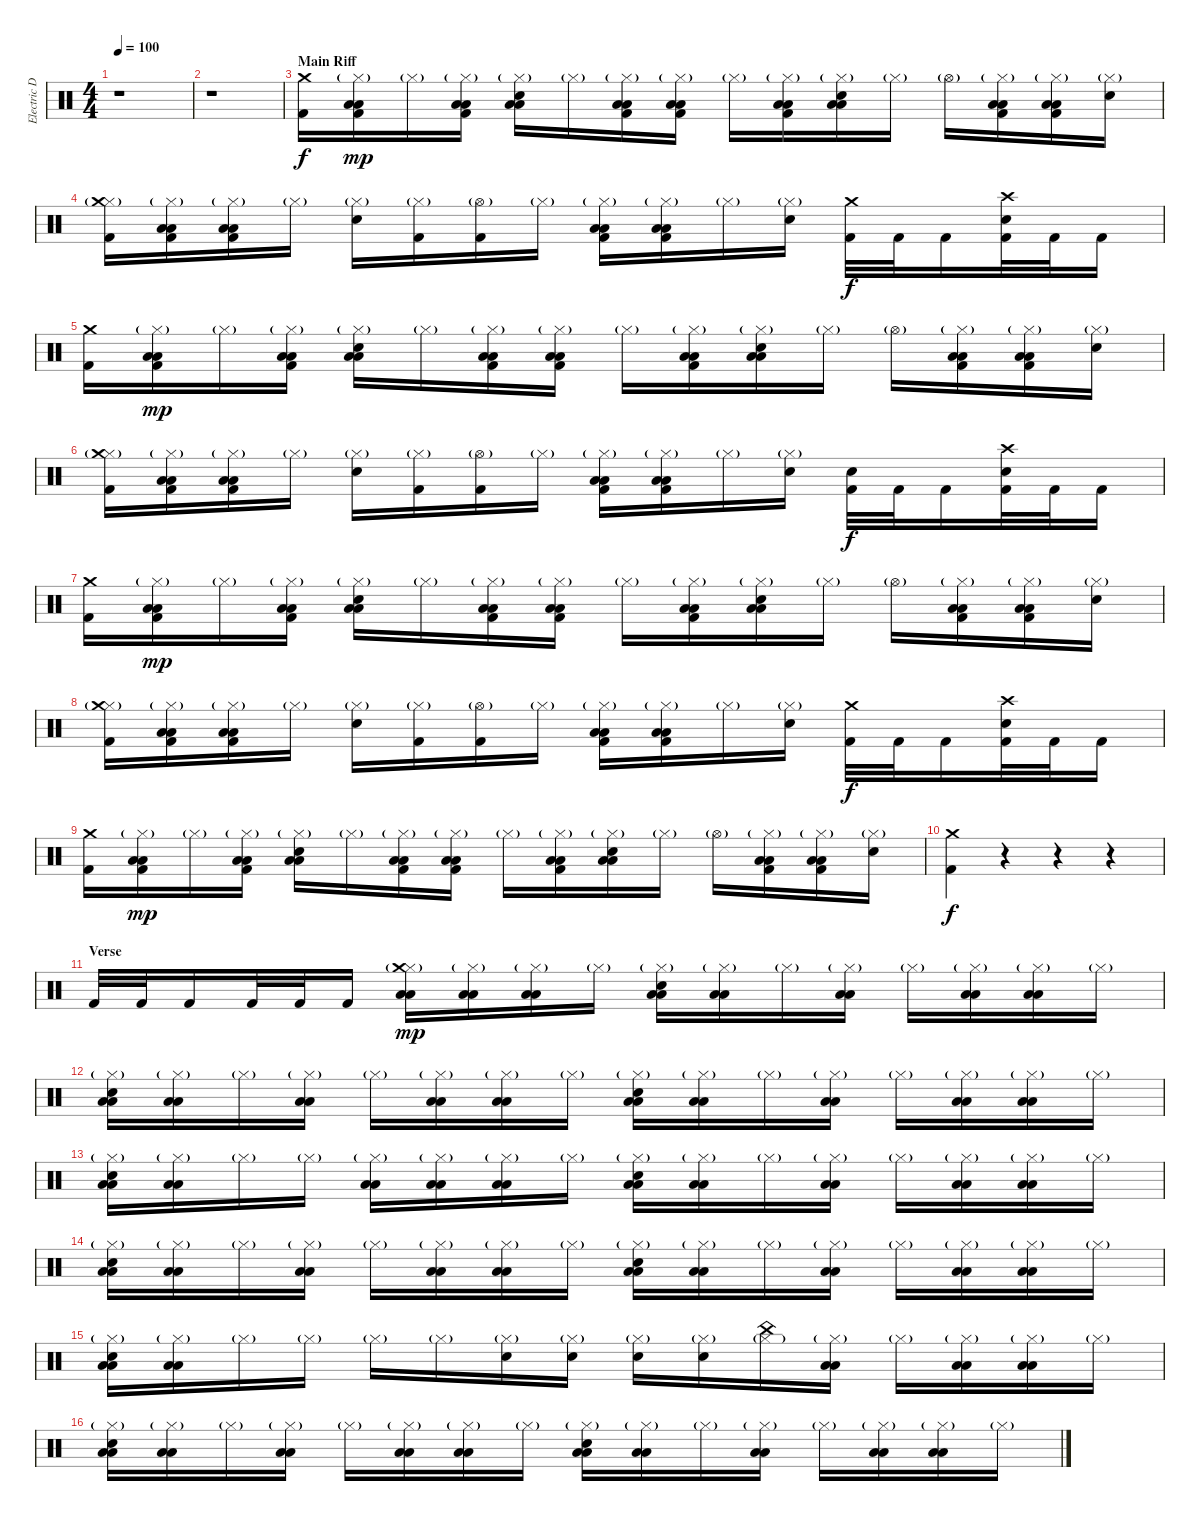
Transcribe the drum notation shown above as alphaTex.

\track ("Electric Drums" "Electric D") {instrument percussion}
\staff {score}
\articulation defaults
\ts (4 4)
\tempo 100
\clef neutral
\ks c
r.1{dy f} |
r.1 |
\section ("" "Main Riff")
("Kick (hit) 2" "Crash medium (hit)").16 ("Hi-Hat (closed)"{g} "Kick (hit) 2" "Low Tom (hit)" "Low Floor Tom (hit)").16{dy mp} "Hi-Hat (closed)"{g}.16 ("Hi-Hat (closed)"{g} "Kick (hit) 2" "Low Tom (hit)" "Low Floor Tom (hit)").16 ("Hi-Hat (closed)"{g} "Snare (hit) 2" "Low Tom (hit)" "Low Floor Tom (hit)").16 "Hi-Hat (closed)"{g}.16 ("Hi-Hat (closed)"{g} "Kick (hit) 2" "Low Floor Tom (hit)" "Low Tom (hit)").16 ("Hi-Hat (closed)"{g} "Kick (hit) 2" "Low Floor Tom (hit)" "Low Tom (hit)").16 "Hi-Hat (closed)"{g}.16 ("Hi-Hat (closed)"{g} "Kick (hit) 2" "Low Floor Tom (hit)" "Low Tom (hit)").16 ("Hi-Hat (closed)"{g} "Snare (hit) 2" "Low Floor Tom (hit)" "Low Tom (hit)").16 "Hi-Hat (closed)"{g}.16 "Hi-Hat (open)"{g}.16 ("Hi-Hat (closed)"{g} "Kick (hit) 2" "Low Tom (hit)" "Low Floor Tom (hit)").16 ("Hi-Hat (closed)"{g} "Kick (hit) 2" "Low Tom (hit)" "Low Floor Tom (hit)").16 ("Hi-Hat (closed)"{g} "Snare (hit) 2").16 |
("Hi-Hat (closed)"{g} "Crash medium (hit)" "Kick (hit) 2").16 ("Hi-Hat (closed)"{g} "Low Tom (hit)" "Low Floor Tom (hit)" "Kick (hit) 2").16 ("Hi-Hat (closed)"{g} "Kick (hit) 2" "Low Floor Tom (hit)" "Low Tom (hit)").16 "Hi-Hat (closed)"{g}.16 ("Hi-Hat (closed)"{g} "Snare (hit) 2").16 ("Hi-Hat (closed)"{g} "Kick (hit) 2").16 ("Hi-Hat (open)"{g} "Kick (hit) 2").16 "Hi-Hat (closed)"{g}.16 ("Hi-Hat (closed)"{g} "Low Tom (hit)" "Low Floor Tom (hit)" "Kick (hit) 2").16 ("Hi-Hat (closed)"{g} "Low Tom (hit)" "Low Floor Tom (hit)" "Kick (hit) 2").16 "Hi-Hat (closed)"{g}.16 ("Hi-Hat (closed)"{g} "Snare (hit) 2").16 ("Crash medium (hit)" "Kick (hit) 2").32{dy f} "Kick (hit) 2".32 "Kick (hit) 2".16 ("Crash high (hit)" "Snare (hit) 2" "Kick (hit) 2").32 "Kick (hit) 2".32 "Kick (hit) 2".16 |
("Kick (hit) 2" "Crash medium (hit)").16 ("Hi-Hat (closed)"{g} "Kick (hit) 2" "Low Tom (hit)" "Low Floor Tom (hit)").16{dy mp} "Hi-Hat (closed)"{g}.16 ("Hi-Hat (closed)"{g} "Kick (hit) 2" "Low Tom (hit)" "Low Floor Tom (hit)").16 ("Hi-Hat (closed)"{g} "Snare (hit) 2" "Low Tom (hit)" "Low Floor Tom (hit)").16 "Hi-Hat (closed)"{g}.16 ("Hi-Hat (closed)"{g} "Kick (hit) 2" "Low Floor Tom (hit)" "Low Tom (hit)").16 ("Hi-Hat (closed)"{g} "Kick (hit) 2" "Low Floor Tom (hit)" "Low Tom (hit)").16 "Hi-Hat (closed)"{g}.16 ("Hi-Hat (closed)"{g} "Kick (hit) 2" "Low Floor Tom (hit)" "Low Tom (hit)").16 ("Hi-Hat (closed)"{g} "Snare (hit) 2" "Low Floor Tom (hit)" "Low Tom (hit)").16 "Hi-Hat (closed)"{g}.16 "Hi-Hat (open)"{g}.16 ("Hi-Hat (closed)"{g} "Kick (hit) 2" "Low Tom (hit)" "Low Floor Tom (hit)").16 ("Hi-Hat (closed)"{g} "Kick (hit) 2" "Low Tom (hit)" "Low Floor Tom (hit)").16 ("Hi-Hat (closed)"{g} "Snare (hit) 2").16 |
("Hi-Hat (closed)"{g} "Crash medium (hit)" "Kick (hit) 2").16 ("Hi-Hat (closed)"{g} "Low Tom (hit)" "Low Floor Tom (hit)" "Kick (hit) 2").16 ("Hi-Hat (closed)"{g} "Kick (hit) 2" "Low Floor Tom (hit)" "Low Tom (hit)").16 "Hi-Hat (closed)"{g}.16 ("Hi-Hat (closed)"{g} "Snare (hit) 2").16 ("Hi-Hat (closed)"{g} "Kick (hit) 2").16 ("Hi-Hat (open)"{g} "Kick (hit) 2").16 "Hi-Hat (closed)"{g}.16 ("Hi-Hat (closed)"{g} "Low Tom (hit)" "Low Floor Tom (hit)" "Kick (hit) 2").16 ("Hi-Hat (closed)"{g} "Low Tom (hit)" "Low Floor Tom (hit)" "Kick (hit) 2").16 "Hi-Hat (closed)"{g}.16 ("Hi-Hat (closed)"{g} "Snare (hit) 2").16 ("Snare (hit) 2" "Kick (hit) 2").32{dy f} "Kick (hit) 2".32 "Kick (hit) 2".16 ("Crash high (hit)" "Snare (hit) 2" "Kick (hit) 2").32 "Kick (hit) 2".32 "Kick (hit) 2".16 |
("Kick (hit) 2" "Crash medium (hit)").16 ("Hi-Hat (closed)"{g} "Kick (hit) 2" "Low Tom (hit)" "Low Floor Tom (hit)").16{dy mp} "Hi-Hat (closed)"{g}.16 ("Hi-Hat (closed)"{g} "Kick (hit) 2" "Low Tom (hit)" "Low Floor Tom (hit)").16 ("Hi-Hat (closed)"{g} "Snare (hit) 2" "Low Tom (hit)" "Low Floor Tom (hit)").16 "Hi-Hat (closed)"{g}.16 ("Hi-Hat (closed)"{g} "Kick (hit) 2" "Low Floor Tom (hit)" "Low Tom (hit)").16 ("Hi-Hat (closed)"{g} "Kick (hit) 2" "Low Floor Tom (hit)" "Low Tom (hit)").16 "Hi-Hat (closed)"{g}.16 ("Hi-Hat (closed)"{g} "Kick (hit) 2" "Low Floor Tom (hit)" "Low Tom (hit)").16 ("Hi-Hat (closed)"{g} "Snare (hit) 2" "Low Floor Tom (hit)" "Low Tom (hit)").16 "Hi-Hat (closed)"{g}.16 "Hi-Hat (open)"{g}.16 ("Hi-Hat (closed)"{g} "Kick (hit) 2" "Low Tom (hit)" "Low Floor Tom (hit)").16 ("Hi-Hat (closed)"{g} "Kick (hit) 2" "Low Tom (hit)" "Low Floor Tom (hit)").16 ("Hi-Hat (closed)"{g} "Snare (hit) 2").16 |
("Hi-Hat (closed)"{g} "Crash medium (hit)" "Kick (hit) 2").16 ("Hi-Hat (closed)"{g} "Low Tom (hit)" "Low Floor Tom (hit)" "Kick (hit) 2").16 ("Hi-Hat (closed)"{g} "Kick (hit) 2" "Low Floor Tom (hit)" "Low Tom (hit)").16 "Hi-Hat (closed)"{g}.16 ("Hi-Hat (closed)"{g} "Snare (hit) 2").16 ("Hi-Hat (closed)"{g} "Kick (hit) 2").16 ("Hi-Hat (open)"{g} "Kick (hit) 2").16 "Hi-Hat (closed)"{g}.16 ("Hi-Hat (closed)"{g} "Low Tom (hit)" "Low Floor Tom (hit)" "Kick (hit) 2").16 ("Hi-Hat (closed)"{g} "Low Tom (hit)" "Low Floor Tom (hit)" "Kick (hit) 2").16 "Hi-Hat (closed)"{g}.16 ("Hi-Hat (closed)"{g} "Snare (hit) 2").16 ("Crash medium (hit)" "Kick (hit) 2").32{dy f} "Kick (hit) 2".32 "Kick (hit) 2".16 ("Crash high (hit)" "Snare (hit) 2" "Kick (hit) 2").32 "Kick (hit) 2".32 "Kick (hit) 2".16 |
("Kick (hit) 2" "Crash medium (hit)").16 ("Hi-Hat (closed)"{g} "Kick (hit) 2" "Low Tom (hit)" "Low Floor Tom (hit)").16{dy mp} "Hi-Hat (closed)"{g}.16 ("Hi-Hat (closed)"{g} "Kick (hit) 2" "Low Tom (hit)" "Low Floor Tom (hit)").16 ("Hi-Hat (closed)"{g} "Snare (hit) 2" "Low Tom (hit)" "Low Floor Tom (hit)").16 "Hi-Hat (closed)"{g}.16 ("Hi-Hat (closed)"{g} "Kick (hit) 2" "Low Floor Tom (hit)" "Low Tom (hit)").16 ("Hi-Hat (closed)"{g} "Kick (hit) 2" "Low Floor Tom (hit)" "Low Tom (hit)").16 "Hi-Hat (closed)"{g}.16 ("Hi-Hat (closed)"{g} "Kick (hit) 2" "Low Floor Tom (hit)" "Low Tom (hit)").16 ("Hi-Hat (closed)"{g} "Snare (hit) 2" "Low Floor Tom (hit)" "Low Tom (hit)").16 "Hi-Hat (closed)"{g}.16 "Hi-Hat (open)"{g}.16 ("Hi-Hat (closed)"{g} "Kick (hit) 2" "Low Tom (hit)" "Low Floor Tom (hit)").16 ("Hi-Hat (closed)"{g} "Kick (hit) 2" "Low Tom (hit)" "Low Floor Tom (hit)").16 ("Hi-Hat (closed)"{g} "Snare (hit) 2").16 |
("Crash medium (hit)" "Kick (hit) 2").4{dy f volume 0} r.4 r.4 r.4{volume 13} |
\section ("" "Verse")
"Kick (hit) 2".32 "Kick (hit) 2".32 "Kick (hit) 2".16 "Kick (hit) 2".32 "Kick (hit) 2".32 "Kick (hit) 2".16 ("Hi-Hat (closed)"{g} "Crash medium (hit)" "Low Floor Tom (hit)" "Low Tom (hit)").16{dy mp} ("Hi-Hat (closed)"{g} "Low Floor Tom (hit)" "Low Tom (hit)").16 ("Hi-Hat (closed)"{g} "Low Floor Tom (hit)" "Low Tom (hit)").16 "Hi-Hat (closed)"{g}.16 ("Hi-Hat (closed)"{g} "Snare (hit) 2" "Low Floor Tom (hit)" "Low Tom (hit)").16 ("Hi-Hat (closed)"{g} "Low Floor Tom (hit)" "Low Tom (hit)").16 "Hi-Hat (closed)"{g}.16 ("Hi-Hat (closed)"{g} "Low Floor Tom (hit)" "Low Tom (hit)").16 "Hi-Hat (closed)"{g}.16 ("Hi-Hat (closed)"{g} "Low Floor Tom (hit)" "Low Tom (hit)").16 ("Hi-Hat (closed)"{g} "Low Floor Tom (hit)" "Low Tom (hit)").16 "Hi-Hat (closed)"{g}.16 |
("Hi-Hat (closed)"{g} "Snare (hit) 2" "Low Floor Tom (hit)" "Low Tom (hit)").16 ("Hi-Hat (closed)"{g} "Low Floor Tom (hit)" "Low Tom (hit)").16 "Hi-Hat (closed)"{g}.16 ("Hi-Hat (closed)"{g} "Low Floor Tom (hit)" "Low Tom (hit)").16 "Hi-Hat (closed)"{g}.16 ("Hi-Hat (closed)"{g} "Low Floor Tom (hit)" "Low Tom (hit)").16 ("Hi-Hat (closed)"{g} "Low Floor Tom (hit)" "Low Tom (hit)").16 "Hi-Hat (closed)"{g}.16 ("Hi-Hat (closed)"{g} "Snare (hit) 2" "Low Floor Tom (hit)" "Low Tom (hit)").16 ("Hi-Hat (closed)"{g} "Low Floor Tom (hit)" "Low Tom (hit)").16 "Hi-Hat (closed)"{g}.16 ("Hi-Hat (closed)"{g} "Low Floor Tom (hit)" "Low Tom (hit)").16 "Hi-Hat (closed)"{g}.16 ("Hi-Hat (closed)"{g} "Low Floor Tom (hit)" "Low Tom (hit)").16 ("Hi-Hat (closed)"{g} "Low Floor Tom (hit)" "Low Tom (hit)").16 "Hi-Hat (closed)"{g}.16 |
("Hi-Hat (closed)"{g} "Snare (hit) 2" "Low Floor Tom (hit)" "Low Tom (hit)").16 ("Hi-Hat (closed)"{g} "Low Floor Tom (hit)" "Low Tom (hit)").16 "Hi-Hat (closed)"{g}.16 "Hi-Hat (closed)"{g}.16 ("Hi-Hat (closed)"{g} "Low Floor Tom (hit)" "Low Tom (hit)").16 ("Hi-Hat (closed)"{g} "Low Floor Tom (hit)" "Low Tom (hit)").16 ("Hi-Hat (closed)"{g} "Low Floor Tom (hit)" "Low Tom (hit)").16 "Hi-Hat (closed)"{g}.16 ("Hi-Hat (closed)"{g} "Snare (hit) 2" "Low Floor Tom (hit)" "Low Tom (hit)").16 ("Hi-Hat (closed)"{g} "Low Floor Tom (hit)" "Low Tom (hit)").16 "Hi-Hat (closed)"{g}.16 ("Hi-Hat (closed)"{g} "Low Floor Tom (hit)" "Low Tom (hit)").16 "Hi-Hat (closed)"{g}.16 ("Hi-Hat (closed)"{g} "Low Floor Tom (hit)" "Low Tom (hit)").16 ("Hi-Hat (closed)"{g} "Low Floor Tom (hit)" "Low Tom (hit)").16 "Hi-Hat (closed)"{g}.16 |
("Hi-Hat (closed)"{g} "Snare (hit) 2" "Low Floor Tom (hit)" "Low Tom (hit)").16 ("Hi-Hat (closed)"{g} "Low Floor Tom (hit)" "Low Tom (hit)").16 "Hi-Hat (closed)"{g}.16 ("Hi-Hat (closed)"{g} "Low Floor Tom (hit)" "Low Tom (hit)").16 "Hi-Hat (closed)"{g}.16 ("Hi-Hat (closed)"{g} "Low Floor Tom (hit)" "Low Tom (hit)").16 ("Hi-Hat (closed)"{g} "Low Floor Tom (hit)" "Low Tom (hit)").16 "Hi-Hat (closed)"{g}.16 ("Hi-Hat (closed)"{g} "Snare (hit) 2" "Low Floor Tom (hit)" "Low Tom (hit)").16 ("Hi-Hat (closed)"{g} "Low Floor Tom (hit)" "Low Tom (hit)").16 "Hi-Hat (closed)"{g}.16 ("Hi-Hat (closed)"{g} "Low Floor Tom (hit)" "Low Tom (hit)").16 "Hi-Hat (closed)"{g}.16 ("Hi-Hat (closed)"{g} "Low Floor Tom (hit)" "Low Tom (hit)").16 ("Hi-Hat (closed)"{g} "Low Floor Tom (hit)" "Low Tom (hit)").16 "Hi-Hat (closed)"{g}.16 |
("Hi-Hat (closed)"{g} "Snare (hit) 2" "Low Floor Tom (hit)" "Low Tom (hit)").16 ("Hi-Hat (closed)"{g} "Low Floor Tom (hit)" "Low Tom (hit)").16 "Hi-Hat (closed)"{g}.16 "Hi-Hat (closed)"{g}.16 "Hi-Hat (closed)"{g}.16 "Hi-Hat (closed)"{g}.16 ("Hi-Hat (closed)"{g} "Snare (hit) 2").16 ("Hi-Hat (closed)"{g} "Snare (hit) 2").16 ("Hi-Hat (closed)"{g} "Snare (hit) 2").16 ("Hi-Hat (closed)"{g} "Snare (hit) 2").16 ("Hi-Hat (closed)"{g} "China (hit)").16 ("Hi-Hat (closed)"{g} "Low Floor Tom (hit)" "Low Tom (hit)").16 "Hi-Hat (closed)"{g}.16 ("Hi-Hat (closed)"{g} "Low Floor Tom (hit)" "Low Tom (hit)").16 ("Hi-Hat (closed)"{g} "Low Floor Tom (hit)" "Low Tom (hit)").16 "Hi-Hat (closed)"{g}.16 |
("Hi-Hat (closed)"{g} "Snare (hit) 2" "Low Floor Tom (hit)" "Low Tom (hit)").16 ("Hi-Hat (closed)"{g} "Low Floor Tom (hit)" "Low Tom (hit)").16 "Hi-Hat (closed)"{g}.16 ("Hi-Hat (closed)"{g} "Low Floor Tom (hit)" "Low Tom (hit)").16 "Hi-Hat (closed)"{g}.16 ("Hi-Hat (closed)"{g} "Low Floor Tom (hit)" "Low Tom (hit)").16 ("Hi-Hat (closed)"{g} "Low Floor Tom (hit)" "Low Tom (hit)").16 "Hi-Hat (closed)"{g}.16 ("Hi-Hat (closed)"{g} "Snare (hit) 2" "Low Floor Tom (hit)" "Low Tom (hit)").16 ("Hi-Hat (closed)"{g} "Low Floor Tom (hit)" "Low Tom (hit)").16 "Hi-Hat (closed)"{g}.16 ("Hi-Hat (closed)"{g} "Low Floor Tom (hit)" "Low Tom (hit)").16 "Hi-Hat (closed)"{g}.16 ("Hi-Hat (closed)"{g} "Low Floor Tom (hit)" "Low Tom (hit)").16 ("Hi-Hat (closed)"{g} "Low Floor Tom (hit)" "Low Tom (hit)").16 "Hi-Hat (closed)"{g}.16
